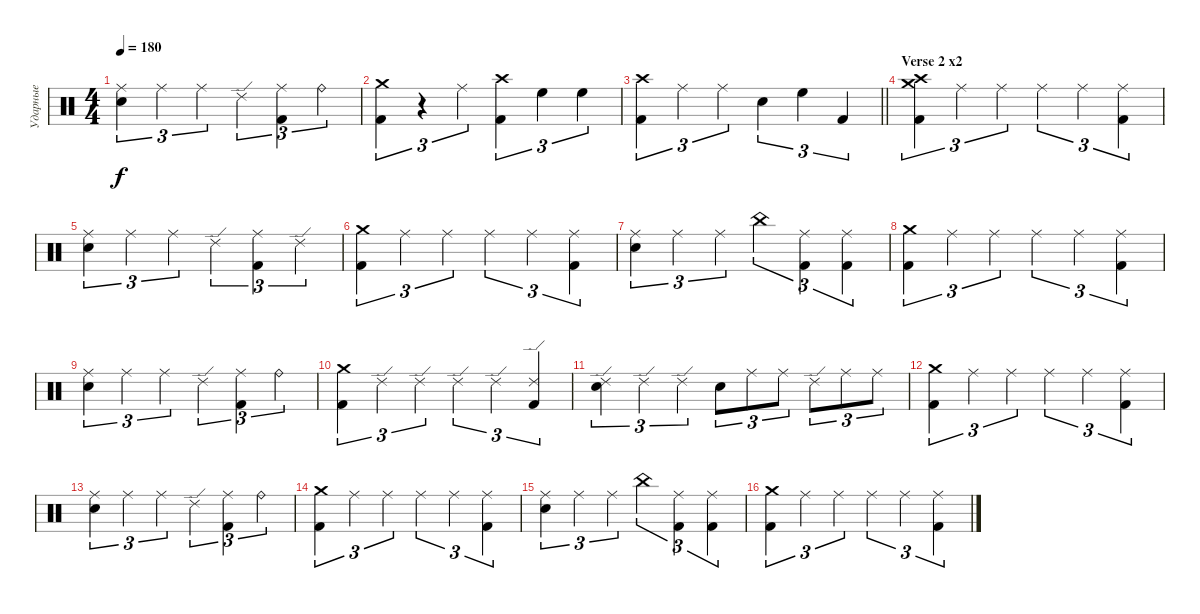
\track ("Ударные" "Ударные") {instrument percussion}
\staff {score}
\articulation defaults
\ts (4 4)
\tempo 180
\clef neutral
\ks c
("Ride (middle)" "Electric Snare (hit)").4{tu (3 2) dy f} "Ride (middle)".4{tu (3 2)} "Ride (middle)".4{tu (3 2)} "Ride (edge) 2".4{tu (3 2)} ("Ride (middle)" "Kick (hit) 2").4{tu (3 2)} "Ride (bell)".4{tu (3 2)} |
("Crash medium (hit)" "Kick (hit) 2").4{tu (3 2)} r.4{tu (3 2)} "Ride (middle)".4{tu (3 2)} ("Crash high (hit)" "Kick (hit) 2").4{tu (3 2)} "High Floor Tom (hit)".4{tu (3 2)} "High Floor Tom (hit)".4{tu (3 2)} |
\barLineRight lightlight
("Crash high (hit)" "Kick (hit) 2").4{tu (3 2)} "Ride (middle)".4{tu (3 2)} "Ride (middle)".4{tu (3 2)} "Electric Snare (hit)".4{tu (3 2)} "High Floor Tom (hit)".4{tu (3 2)} "Kick (hit) 2".4{tu (3 2)} |
\section ("" "Verse 2 x2")
("Crash high (hit)" "Crash medium (hit)" "Kick (hit) 2").4{tu (3 2)} "Ride (middle)".4{tu (3 2)} "Ride (middle)".4{tu (3 2)} "Ride (middle)".4{tu (3 2)} "Ride (middle)".4{tu (3 2)} ("Ride (middle)" "Kick (hit) 2").4{tu (3 2)} |
("Ride (middle)" "Electric Snare (hit)").4{tu (3 2)} "Ride (middle)".4{tu (3 2)} "Ride (middle)".4{tu (3 2)} "Ride (edge) 2".4{tu (3 2)} ("Ride (middle)" "Kick (hit) 2").4{tu (3 2)} "Ride (edge) 2".4{tu (3 2)} |
("Crash medium (hit)" "Kick (hit) 2").4{tu (3 2)} "Ride (middle)".4{tu (3 2)} "Ride (middle)".4{tu (3 2)} "Ride (middle)".4{tu (3 2)} "Ride (middle)".4{tu (3 2)} ("Ride (middle)" "Kick (hit) 2").4{tu (3 2)} |
("Ride (middle)" "Electric Snare (hit)").4{tu (3 2)} "Ride (middle)".4{tu (3 2)} "Ride (middle)".4{tu (3 2)} "China (hit)".4{tu (3 2)} ("Ride (middle)" "Kick (hit) 2").4{tu (3 2)} ("Ride (middle)" "Kick (hit) 2").4{tu (3 2)} |
("Crash medium (hit)" "Kick (hit) 2").4{tu (3 2)} "Ride (middle)".4{tu (3 2)} "Ride (middle)".4{tu (3 2)} "Ride (middle)".4{tu (3 2)} "Ride (middle)".4{tu (3 2)} ("Ride (middle)" "Kick (hit) 2").4{tu (3 2)} |
("Ride (middle)" "Electric Snare (hit)").4{tu (3 2)} "Ride (middle)".4{tu (3 2)} "Ride (middle)".4{tu (3 2)} "Ride (edge) 2".4{tu (3 2)} ("Ride (middle)" "Kick (hit) 2").4{tu (3 2)} "Ride (bell)".4{tu (3 2)} |
("Crash medium (hit)" "Kick (hit) 2").4{tu (3 2)} "Ride (edge) 2".4{tu (3 2)} "Ride (edge) 2".4{tu (3 2)} "Ride (edge) 2".4{tu (3 2)} "Ride (edge) 2".4{tu (3 2)} ("Ride (edge) 2" "Kick (hit) 2").4{tu (3 2)} |
("Ride (edge) 2" "Electric Snare (hit)").4{tu (3 2)} "Ride (edge) 2".4{tu (3 2)} "Ride (edge) 2".4{tu (3 2)} "Electric Snare (hit)".8{tu (3 2)} "Ride (middle)".8{tu (3 2)} "Ride (middle)".8{tu (3 2)} "Ride (edge) 2".8{tu (3 2)} "Ride (middle)".8{tu (3 2)} "Ride (middle)".8{tu (3 2)} |
("Crash medium (hit)" "Kick (hit) 2").4{tu (3 2)} "Ride (middle)".4{tu (3 2)} "Ride (middle)".4{tu (3 2)} "Ride (middle)".4{tu (3 2)} "Ride (middle)".4{tu (3 2)} ("Ride (middle)" "Kick (hit) 2").4{tu (3 2)} |
("Ride (middle)" "Electric Snare (hit)").4{tu (3 2)} "Ride (middle)".4{tu (3 2)} "Ride (middle)".4{tu (3 2)} "Ride (edge) 2".4{tu (3 2)} ("Ride (middle)" "Kick (hit) 2").4{tu (3 2)} "Ride (bell)".4{tu (3 2)} |
("Crash medium (hit)" "Kick (hit) 2").4{tu (3 2)} "Ride (middle)".4{tu (3 2)} "Ride (middle)".4{tu (3 2)} "Ride (middle)".4{tu (3 2)} "Ride (middle)".4{tu (3 2)} ("Ride (middle)" "Kick (hit) 2").4{tu (3 2)} |
("Ride (middle)" "Electric Snare (hit)").4{tu (3 2)} "Ride (middle)".4{tu (3 2)} "Ride (middle)".4{tu (3 2)} "China (hit)".4{tu (3 2)} ("Ride (middle)" "Kick (hit) 2").4{tu (3 2)} ("Ride (middle)" "Kick (hit) 2").4{tu (3 2)} |
("Crash medium (hit)" "Kick (hit) 2").4{tu (3 2)} "Ride (middle)".4{tu (3 2)} "Ride (middle)".4{tu (3 2)} "Ride (middle)".4{tu (3 2)} "Ride (middle)".4{tu (3 2)} ("Ride (middle)" "Kick (hit) 2").4{tu (3 2)}
